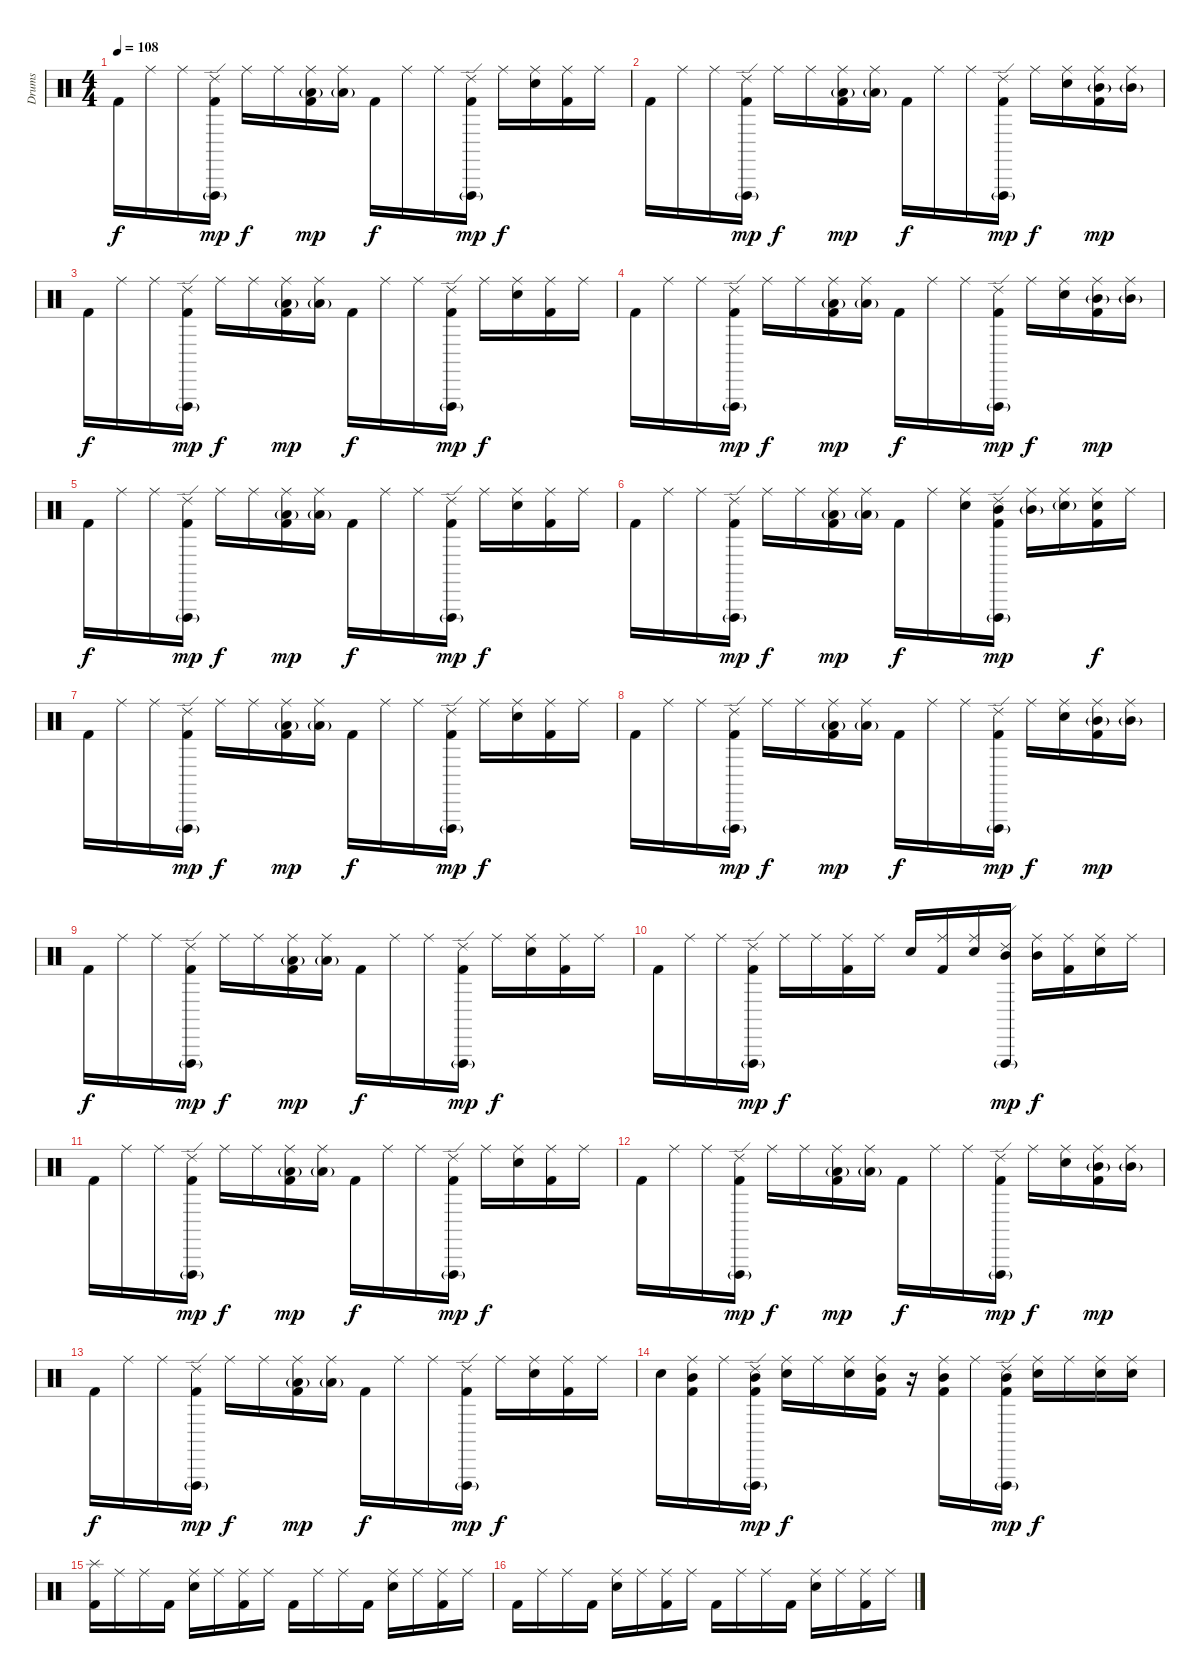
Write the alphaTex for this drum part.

\track ("Drums" "Drums") {instrument percussion}
\staff {score}
\articulation defaults
\ts (4 4)
\tempo 108
\clef neutral
\ks c "Kick (hit) 2".16{dy f} "Ride (middle)".16 "Ride (middle)".16
("Vibraslap (hit)"{g} "Ride (edge) 2" "Kick (hit) 2").16{dy mp} "Ride (middle)".16{dy f} "Ride (middle)".16 ("Ride (middle)" "Kick (hit) 2" "Low Tom (hit)"{g}).16{dy mp} ("Ride (middle)" "Low Tom (hit)"{g}).16 "Kick (hit) 2".16{dy f} "Ride (middle)".16 "Ride (middle)".16 ("Vibraslap (hit)"{g} "Ride (edge) 2" "Kick (hit) 2").16{dy mp} "Ride (middle)".16{dy f} ("Ride (middle)" "Snare (hit) 2").16 ("Ride (middle)" "Kick (hit) 2").16 "Ride (middle)".16 |
"Kick (hit) 2".16 "Ride (middle)".16 "Ride (middle)".16 ("Vibraslap (hit)"{g} "Ride (edge) 2" "Kick (hit) 2").16{dy mp} "Ride (middle)".16{dy f} "Ride (middle)".16 ("Ride (middle)" "Kick (hit) 2" "Low Tom (hit)"{g}).16{dy mp} ("Ride (middle)" "Low Tom (hit)"{g}).16 "Kick (hit) 2".16{dy f} "Ride (middle)".16 "Ride (middle)".16 ("Vibraslap (hit)"{g} "Ride (edge) 2" "Kick (hit) 2").16{dy mp} "Ride (middle)".16{dy f} ("Ride (middle)" "Snare (hit) 2").16 ("Ride (middle)" "Mid Tom (hit)"{g} "Kick (hit) 2").16{dy mp} ("Ride (middle)" "Mid Tom (hit)"{g}).16 |
"Kick (hit) 2".16{dy f} "Ride (middle)".16 "Ride (middle)".16 ("Vibraslap (hit)"{g} "Ride (edge) 2" "Kick (hit) 2").16{dy mp} "Ride (middle)".16{dy f} "Ride (middle)".16 ("Ride (middle)" "Kick (hit) 2" "Low Tom (hit)"{g}).16{dy mp} ("Ride (middle)" "Low Tom (hit)"{g}).16 "Kick (hit) 2".16{dy f} "Ride (middle)".16 "Ride (middle)".16 ("Vibraslap (hit)"{g} "Ride (edge) 2" "Kick (hit) 2").16{dy mp} "Ride (middle)".16{dy f} ("Ride (middle)" "Snare (hit) 2").16 ("Ride (middle)" "Kick (hit) 2").16 "Ride (middle)".16 |
"Kick (hit) 2".16 "Ride (middle)".16 "Ride (middle)".16 ("Vibraslap (hit)"{g} "Ride (edge) 2" "Kick (hit) 2").16{dy mp} "Ride (middle)".16{dy f} "Ride (middle)".16 ("Ride (middle)" "Kick (hit) 2" "Low Tom (hit)"{g}).16{dy mp} ("Ride (middle)" "Low Tom (hit)"{g}).16 "Kick (hit) 2".16{dy f} "Ride (middle)".16 "Ride (middle)".16 ("Vibraslap (hit)"{g} "Ride (edge) 2" "Kick (hit) 2").16{dy mp} "Ride (middle)".16{dy f} ("Ride (middle)" "Snare (hit) 2").16 ("Ride (middle)" "Mid Tom (hit)"{g} "Kick (hit) 2").16{dy mp} ("Ride (middle)" "Mid Tom (hit)"{g}).16 |
"Kick (hit) 2".16{dy f} "Ride (middle)".16 "Ride (middle)".16 ("Vibraslap (hit)"{g} "Ride (edge) 2" "Kick (hit) 2").16{dy mp} "Ride (middle)".16{dy f} "Ride (middle)".16 ("Ride (middle)" "Kick (hit) 2" "Low Tom (hit)"{g}).16{dy mp} ("Ride (middle)" "Low Tom (hit)"{g}).16 "Kick (hit) 2".16{dy f} "Ride (middle)".16 "Ride (middle)".16 ("Vibraslap (hit)"{g} "Ride (edge) 2" "Kick (hit) 2").16{dy mp} "Ride (middle)".16{dy f} ("Ride (middle)" "Snare (hit) 2").16 ("Ride (middle)" "Kick (hit) 2").16 "Ride (middle)".16 |
"Kick (hit) 2".16 "Ride (middle)".16 "Ride (middle)".16 ("Vibraslap (hit)"{g} "Ride (edge) 2" "Kick (hit) 2").16{dy mp} "Ride (middle)".16{dy f} "Ride (middle)".16 ("Ride (middle)" "Kick (hit) 2" "Low Tom (hit)"{g}).16{dy mp} ("Ride (middle)" "Low Tom (hit)"{g}).16 "Kick (hit) 2".16{dy f} "Ride (middle)".16 ("Ride (middle)" "Snare (hit) 2").16 ("Vibraslap (hit)"{g} "Ride (edge) 2" "Mid Tom (hit)" "Kick (hit) 2").16{dy mp} ("Ride (middle)" "Mid Tom (hit)"{g}).16 ("Ride (middle)" "Snare (hit) 2"{g}).16 ("Ride (middle)" "Snare (hit) 2" "Kick (hit) 2").16{dy f} "Ride (middle)".16 |
"Kick (hit) 2".16 "Ride (middle)".16 "Ride (middle)".16 ("Vibraslap (hit)"{g} "Ride (edge) 2" "Kick (hit) 2").16{dy mp} "Ride (middle)".16{dy f} "Ride (middle)".16 ("Ride (middle)" "Kick (hit) 2" "Low Tom (hit)"{g}).16{dy mp} ("Ride (middle)" "Low Tom (hit)"{g}).16 "Kick (hit) 2".16{dy f} "Ride (middle)".16 "Ride (middle)".16 ("Vibraslap (hit)"{g} "Ride (edge) 2" "Kick (hit) 2").16{dy mp} "Ride (middle)".16{dy f} ("Ride (middle)" "Snare (hit) 2").16 ("Ride (middle)" "Kick (hit) 2").16 "Ride (middle)".16 |
"Kick (hit) 2".16 "Ride (middle)".16 "Ride (middle)".16 ("Vibraslap (hit)"{g} "Ride (edge) 2" "Kick (hit) 2").16{dy mp} "Ride (middle)".16{dy f} "Ride (middle)".16 ("Ride (middle)" "Kick (hit) 2" "Low Tom (hit)"{g}).16{dy mp} ("Ride (middle)" "Low Tom (hit)"{g}).16 "Kick (hit) 2".16{dy f} "Ride (middle)".16 "Ride (middle)".16 ("Vibraslap (hit)"{g} "Ride (edge) 2" "Kick (hit) 2").16{dy mp} "Ride (middle)".16{dy f} ("Ride (middle)" "Snare (hit) 2").16 ("Ride (middle)" "Mid Tom (hit)"{g} "Kick (hit) 2").16{dy mp} ("Ride (middle)" "Mid Tom (hit)"{g}).16 |
"Kick (hit) 2".16{dy f} "Ride (middle)".16 "Ride (middle)".16 ("Vibraslap (hit)"{g} "Ride (edge) 2" "Kick (hit) 2").16{dy mp} "Ride (middle)".16{dy f} "Ride (middle)".16 ("Ride (middle)" "Kick (hit) 2" "Low Tom (hit)"{g}).16{dy mp} ("Ride (middle)" "Low Tom (hit)"{g}).16 "Kick (hit) 2".16{dy f} "Ride (middle)".16 "Ride (middle)".16 ("Vibraslap (hit)"{g} "Ride (edge) 2" "Kick (hit) 2").16{dy mp} "Ride (middle)".16{dy f} ("Ride (middle)" "Snare (hit) 2").16 ("Ride (middle)" "Kick (hit) 2").16 "Ride (middle)".16 |
"Kick (hit) 2".16 "Ride (middle)".16 "Ride (middle)".16 ("Vibraslap (hit)"{g} "Ride (edge) 2" "Kick (hit) 2").16{dy mp} "Ride (middle)".16{dy f} "Ride (middle)".16 ("Ride (middle)" "Kick (hit) 2").16 "Ride (middle)".16 "Snare (hit) 2".16 ("Ride (middle)" "Kick (hit) 2").16 ("Ride (middle)" "Snare (hit) 2").16 ("Vibraslap (hit)"{g} "Ride (edge) 2" "Mid Tom (hit)").16{dy mp} ("Ride (middle)" "Mid Tom (hit)").16{dy f} ("Ride (middle)" "Kick (hit) 2").16 ("Ride (middle)" "Snare (hit) 2").16 "Ride (middle)".16 |
"Kick (hit) 2".16 "Ride (middle)".16 "Ride (middle)".16 ("Vibraslap (hit)"{g} "Ride (edge) 2" "Kick (hit) 2").16{dy mp} "Ride (middle)".16{dy f} "Ride (middle)".16 ("Ride (middle)" "Kick (hit) 2" "Low Tom (hit)"{g}).16{dy mp} ("Ride (middle)" "Low Tom (hit)"{g}).16 "Kick (hit) 2".16{dy f} "Ride (middle)".16 "Ride (middle)".16 ("Vibraslap (hit)"{g} "Ride (edge) 2" "Kick (hit) 2").16{dy mp} "Ride (middle)".16{dy f} ("Ride (middle)" "Snare (hit) 2").16 ("Ride (middle)" "Kick (hit) 2").16 "Ride (middle)".16 |
"Kick (hit) 2".16 "Ride (middle)".16 "Ride (middle)".16 ("Vibraslap (hit)"{g} "Ride (edge) 2" "Kick (hit) 2").16{dy mp} "Ride (middle)".16{dy f} "Ride (middle)".16 ("Ride (middle)" "Kick (hit) 2" "Low Tom (hit)"{g}).16{dy mp} ("Ride (middle)" "Low Tom (hit)"{g}).16 "Kick (hit) 2".16{dy f} "Ride (middle)".16 "Ride (middle)".16 ("Vibraslap (hit)"{g} "Ride (edge) 2" "Kick (hit) 2").16{dy mp} "Ride (middle)".16{dy f} ("Ride (middle)" "Snare (hit) 2").16 ("Ride (middle)" "Mid Tom (hit)"{g} "Kick (hit) 2").16{dy mp} ("Ride (middle)" "Mid Tom (hit)"{g}).16 |
"Kick (hit) 2".16{dy f} "Ride (middle)".16 "Ride (middle)".16 ("Vibraslap (hit)"{g} "Ride (edge) 2" "Kick (hit) 2").16{dy mp} "Ride (middle)".16{dy f} "Ride (middle)".16 ("Ride (middle)" "Kick (hit) 2" "Low Tom (hit)"{g}).16{dy mp} ("Ride (middle)" "Low Tom (hit)"{g}).16 "Kick (hit) 2".16{dy f} "Ride (middle)".16 "Ride (middle)".16 ("Vibraslap (hit)"{g} "Ride (edge) 2" "Kick (hit) 2").16{dy mp} "Ride (middle)".16{dy f} ("Ride (middle)" "Snare (hit) 2").16 ("Ride (middle)" "Kick (hit) 2").16 "Ride (middle)".16 |
"Snare (hit) 2".16 ("Ride (middle)" "Mid Tom (hit)" "Kick (hit) 2").16 "Ride (middle)".16 ("Vibraslap (hit)"{g} "Ride (edge) 2" "Mid Tom (hit)" "Kick (hit) 2").16{dy mp} ("Ride (middle)" "Snare (hit) 2").16{dy f} "Ride (middle)".16 ("Ride (middle)" "Snare (hit) 2").16 ("Ride (middle)" "Mid Tom (hit)" "Kick (hit) 2").16 r.16 ("Ride (middle)" "Mid Tom (hit)" "Kick (hit) 2").16 "Ride (middle)".16 ("Vibraslap (hit)"{g} "Ride (edge) 2" "Mid Tom (hit)" "Kick (hit) 2").16{dy mp} ("Ride (middle)" "Snare (hit) 2").16{dy f} "Ride (middle)".16 ("Ride (middle)" "Snare (hit) 2").16 ("Ride (middle)" "Snare (hit) 2").16 |
("Splash (hit)" "Kick (hit) 2").16 "Ride (middle)".16 "Ride (middle)".16 "Kick (hit) 2".16 ("Ride (middle)" "Snare (hit) 2").16 "Ride (middle)".16 ("Ride (middle)" "Kick (hit) 2").16 "Ride (middle)".16 "Kick (hit) 2".16 "Ride (middle)".16 "Ride (middle)".16 "Kick (hit) 2".16 ("Ride (middle)" "Snare (hit) 2").16 "Ride (middle)".16 ("Ride (middle)" "Kick (hit) 2").16 "Ride (middle)".16 |
"Kick (hit) 2".16 "Ride (middle)".16 "Ride (middle)".16 "Kick (hit) 2".16 ("Ride (middle)" "Snare (hit) 2").16 "Ride (middle)".16 ("Ride (middle)" "Kick (hit) 2").16 "Ride (middle)".16 "Kick (hit) 2".16 "Ride (middle)".16 "Ride (middle)".16 "Kick (hit) 2".16 ("Ride (middle)" "Snare (hit) 2").16 "Ride (middle)".16 ("Ride (middle)" "Kick (hit) 2").16 "Ride (middle)".16
